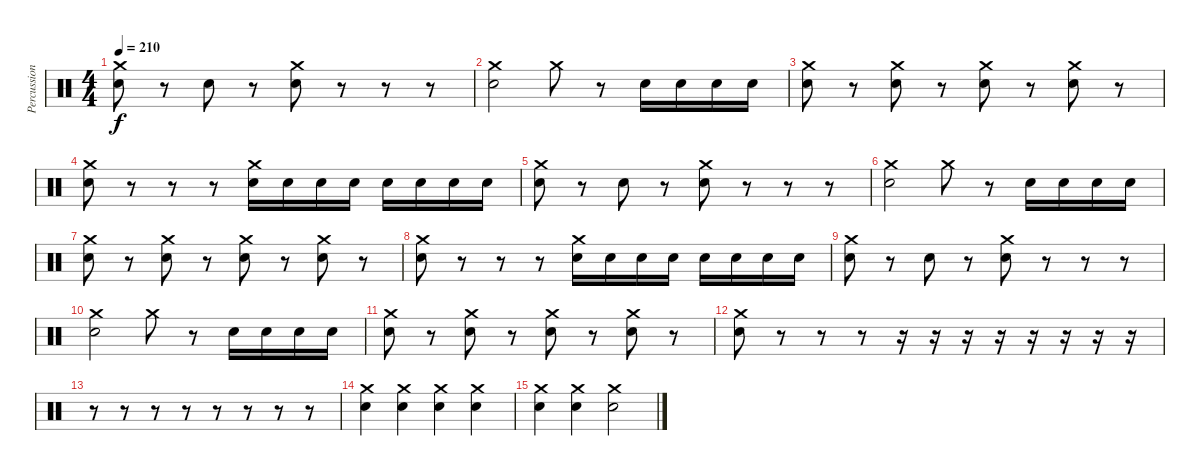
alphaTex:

\track ("Percussion" "Percussion") {instrument percussion}
\staff {score}
\articulation defaults
\ts (4 4)
\tempo 210
\clef neutral
\ks c
("Crash medium (hit)" "Electric Snare (hit)").8{dy f} r.8 "Electric Snare (hit)".8 r.8 ("Crash medium (hit)" "Electric Snare (hit)").8 r.8 r.8 r.8 |
("Crash medium (hit)" "Electric Snare (hit)").2 "Crash medium (hit)".8 r.8 "Electric Snare (hit)".16 "Electric Snare (hit)".16 "Electric Snare (hit)".16 "Electric Snare (hit)".16 |
("Crash medium (hit)" "Electric Snare (hit)").8 r.8 ("Crash medium (hit)" "Electric Snare (hit)").8 r.8 ("Crash medium (hit)" "Electric Snare (hit)").8 r.8 ("Crash medium (hit)" "Electric Snare (hit)").8 r.8 |
("Crash medium (hit)" "Electric Snare (hit)").8 r.8 r.8 r.8 ("Crash medium (hit)" "Electric Snare (hit)").16 "Electric Snare (hit)".16 "Electric Snare (hit)".16 "Electric Snare (hit)".16 "Electric Snare (hit)".16 "Electric Snare (hit)".16 "Electric Snare (hit)".16 "Electric Snare (hit)".16 |
("Crash medium (hit)" "Electric Snare (hit)").8 r.8 "Electric Snare (hit)".8 r.8 ("Crash medium (hit)" "Electric Snare (hit)").8 r.8 r.8 r.8 |
("Crash medium (hit)" "Electric Snare (hit)").2 "Crash medium (hit)".8 r.8 "Electric Snare (hit)".16 "Electric Snare (hit)".16 "Electric Snare (hit)".16 "Electric Snare (hit)".16 |
("Crash medium (hit)" "Electric Snare (hit)").8 r.8 ("Crash medium (hit)" "Electric Snare (hit)").8 r.8 ("Crash medium (hit)" "Electric Snare (hit)").8 r.8 ("Crash medium (hit)" "Electric Snare (hit)").8 r.8 |
("Crash medium (hit)" "Electric Snare (hit)").8 r.8 r.8 r.8 ("Crash medium (hit)" "Electric Snare (hit)").16 "Electric Snare (hit)".16 "Electric Snare (hit)".16 "Electric Snare (hit)".16 "Electric Snare (hit)".16 "Electric Snare (hit)".16 "Electric Snare (hit)".16 "Electric Snare (hit)".16 |
("Crash medium (hit)" "Electric Snare (hit)").8 r.8 "Electric Snare (hit)".8 r.8 ("Crash medium (hit)" "Electric Snare (hit)").8 r.8 r.8 r.8 |
("Crash medium (hit)" "Electric Snare (hit)").2 "Crash medium (hit)".8 r.8 "Electric Snare (hit)".16 "Electric Snare (hit)".16 "Electric Snare (hit)".16 "Electric Snare (hit)".16 |
("Crash medium (hit)" "Electric Snare (hit)").8 r.8 ("Crash medium (hit)" "Electric Snare (hit)").8 r.8 ("Crash medium (hit)" "Electric Snare (hit)").8 r.8 ("Crash medium (hit)" "Electric Snare (hit)").8 r.8 |
("Crash medium (hit)" "Electric Snare (hit)").8 r.8 r.8 r.8 r.16 r.16 r.16 r.16 r.16 r.16 r.16 r.16 |
r.8 r.8 r.8 r.8 r.8 r.8 r.8 r.8 |
("Crash medium (hit)" "Electric Snare (hit)").4 ("Crash medium (hit)" "Electric Snare (hit)").4 ("Crash medium (hit)" "Electric Snare (hit)").4 ("Crash medium (hit)" "Electric Snare (hit)").4 |
("Crash medium (hit)" "Electric Snare (hit)").4 ("Crash medium (hit)" "Electric Snare (hit)").4 ("Crash medium (hit)" "Electric Snare (hit)").2
